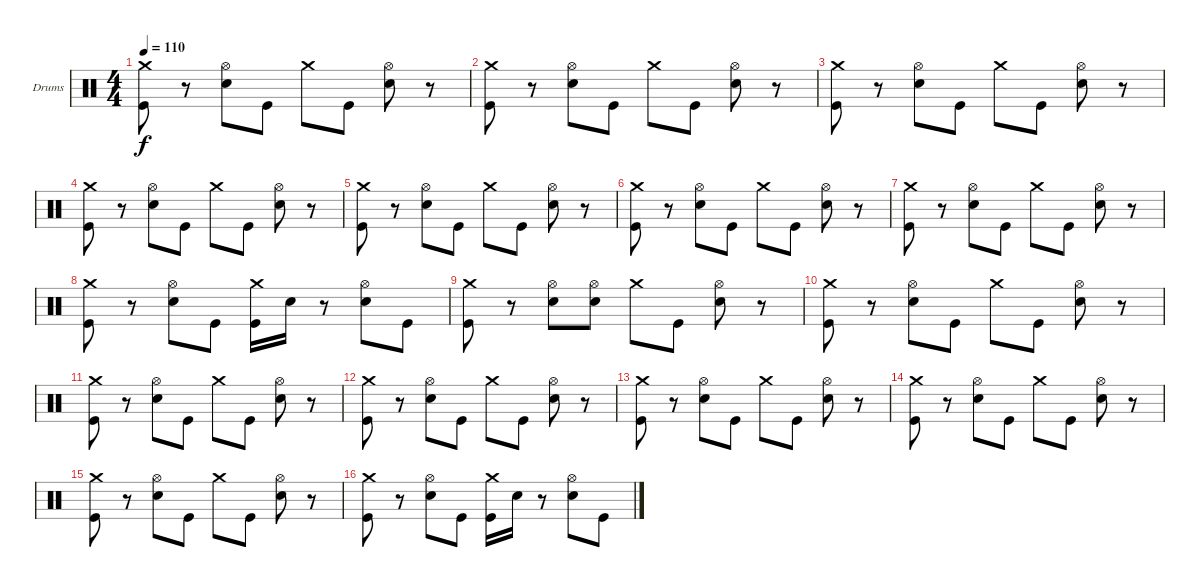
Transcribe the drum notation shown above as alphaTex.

\bracketExtendMode groupsimilarinstruments
\firstSystemTrackNameOrientation horizontal
\otherSystemsTrackNameOrientation horizontal
\track ("Drumkit" "Drums") {instrument percussion}
\staff {score}
\articulation defaults
\ts (4 4)
\tempo 110
\clef neutral
\ks c
("Crash medium (hit)" "Kick (hit)").8{dy f} r.8 ("Hi-Hat (open)" "Snare (hit) 2").8 "Kick (hit)".8 "Crash medium (hit)".8 "Kick (hit)".8 ("Hi-Hat (open)" "Snare (hit) 2").8 r.8 |
("Crash medium (hit)" "Kick (hit)").8 r.8 ("Hi-Hat (open)" "Snare (hit) 2").8 "Kick (hit)".8 "Crash medium (hit)".8 "Kick (hit)".8 ("Hi-Hat (open)" "Snare (hit) 2").8 r.8 |
("Crash medium (hit)" "Kick (hit)").8 r.8 ("Hi-Hat (open)" "Snare (hit) 2").8 "Kick (hit)".8 "Crash medium (hit)".8 "Kick (hit)".8 ("Hi-Hat (open)" "Snare (hit) 2").8 r.8 |
("Crash medium (hit)" "Kick (hit)").8 r.8 ("Hi-Hat (open)" "Snare (hit) 2").8 "Kick (hit)".8 "Crash medium (hit)".8 "Kick (hit)".8 ("Hi-Hat (open)" "Snare (hit) 2").8 r.8 |
("Crash medium (hit)" "Kick (hit)").8 r.8 ("Hi-Hat (open)" "Snare (hit) 2").8 "Kick (hit)".8 "Crash medium (hit)".8 "Kick (hit)".8 ("Hi-Hat (open)" "Snare (hit) 2").8 r.8 |
("Crash medium (hit)" "Kick (hit)").8 r.8 ("Hi-Hat (open)" "Snare (hit) 2").8 "Kick (hit)".8 "Crash medium (hit)".8 "Kick (hit)".8 ("Hi-Hat (open)" "Snare (hit) 2").8 r.8 |
("Crash medium (hit)" "Kick (hit)").8 r.8 ("Hi-Hat (open)" "Snare (hit) 2").8 "Kick (hit)".8 "Crash medium (hit)".8 "Kick (hit)".8 ("Hi-Hat (open)" "Snare (hit) 2").8 r.8 |
("Crash medium (hit)" "Kick (hit)").8 r.8 ("Hi-Hat (open)" "Snare (hit) 2").8 "Kick (hit)".8 ("Crash medium (hit)" "Kick (hit)").16 "Snare (hit) 2".16 r.8 ("Hi-Hat (open)" "Snare (hit) 2").8 "Kick (hit)".8 |
("Crash medium (hit)" "Kick (hit)").8 r.8 ("Hi-Hat (open)" "Snare (hit) 2").8 ("Hi-Hat (open)" "Snare (hit) 2").8 "Crash medium (hit)".8 "Kick (hit)".8 ("Hi-Hat (open)" "Snare (hit) 2").8 r.8 |
("Crash medium (hit)" "Kick (hit)").8 r.8 ("Hi-Hat (open)" "Snare (hit) 2").8 "Kick (hit)".8 "Crash medium (hit)".8 "Kick (hit)".8 ("Hi-Hat (open)" "Snare (hit) 2").8 r.8 |
("Crash medium (hit)" "Kick (hit)").8 r.8 ("Hi-Hat (open)" "Snare (hit) 2").8 "Kick (hit)".8 "Crash medium (hit)".8 "Kick (hit)".8 ("Hi-Hat (open)" "Snare (hit) 2").8 r.8 |
("Crash medium (hit)" "Kick (hit)").8 r.8 ("Hi-Hat (open)" "Snare (hit) 2").8 "Kick (hit)".8 "Crash medium (hit)".8 "Kick (hit)".8 ("Hi-Hat (open)" "Snare (hit) 2").8 r.8 |
("Crash medium (hit)" "Kick (hit)").8 r.8 ("Hi-Hat (open)" "Snare (hit) 2").8 "Kick (hit)".8 "Crash medium (hit)".8 "Kick (hit)".8 ("Hi-Hat (open)" "Snare (hit) 2").8 r.8 |
("Crash medium (hit)" "Kick (hit)").8 r.8 ("Hi-Hat (open)" "Snare (hit) 2").8 "Kick (hit)".8 "Crash medium (hit)".8 "Kick (hit)".8 ("Hi-Hat (open)" "Snare (hit) 2").8 r.8 |
("Crash medium (hit)" "Kick (hit)").8 r.8 ("Hi-Hat (open)" "Snare (hit) 2").8 "Kick (hit)".8 "Crash medium (hit)".8 "Kick (hit)".8 ("Hi-Hat (open)" "Snare (hit) 2").8 r.8 |
("Crash medium (hit)" "Kick (hit)").8 r.8 ("Hi-Hat (open)" "Snare (hit) 2").8 "Kick (hit)".8 ("Crash medium (hit)" "Kick (hit)").16 "Snare (hit) 2".16 r.8 ("Hi-Hat (open)" "Snare (hit) 2").8 "Kick (hit)".8
